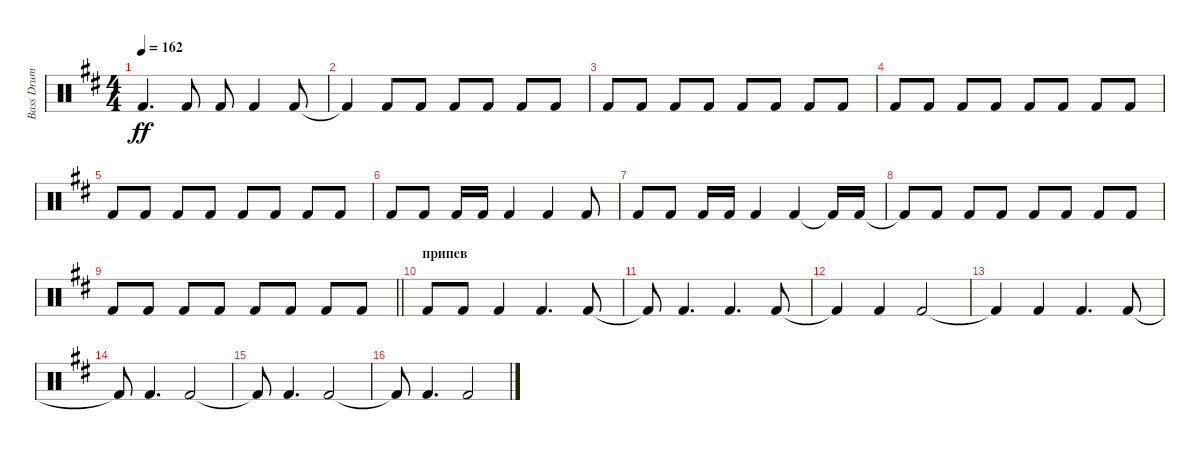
\track ("Bass Drum" "Bass Drum") {instrument percussion}
\staff {score}
\articulation defaults
\ts (4 4)
\tempo 162
\clef neutral
\ks bminor "Kick (hit) 2"{t}.4{d dy ff} "Kick (hit) 2".8 "Kick (hit) 2".8 "Kick (hit) 2".4 "Kick (hit) 2".8
|
"Kick (hit) 2"{t}.4 "Kick (hit) 2".8 "Kick (hit) 2".8 "Kick (hit) 2".8 "Kick (hit) 2".8 "Kick (hit) 2".8 "Kick (hit) 2".8 |
"Kick (hit) 2".8 "Kick (hit) 2".8 "Kick (hit) 2".8 "Kick (hit) 2".8 "Kick (hit) 2".8 "Kick (hit) 2".8 "Kick (hit) 2".8 "Kick (hit) 2".8 |
"Kick (hit) 2".8 "Kick (hit) 2".8 "Kick (hit) 2".8 "Kick (hit) 2".8 "Kick (hit) 2".8 "Kick (hit) 2".8 "Kick (hit) 2".8 "Kick (hit) 2".8 |
"Kick (hit) 2".8 "Kick (hit) 2".8 "Kick (hit) 2".8 "Kick (hit) 2".8 "Kick (hit) 2".8 "Kick (hit) 2".8 "Kick (hit) 2".8 "Kick (hit) 2".8 |
"Kick (hit) 2".8 "Kick (hit) 2".8 "Kick (hit) 2".16 "Kick (hit) 2".16 "Kick (hit) 2".4 "Kick (hit) 2".4 "Kick (hit) 2".8 |
"Kick (hit) 2".8 "Kick (hit) 2".8 "Kick (hit) 2".16 "Kick (hit) 2".16 "Kick (hit) 2".4 "Kick (hit) 2".4 "Kick (hit) 2"{t}.16 "Kick (hit) 2".16 |
"Kick (hit) 2"{t}.8 "Kick (hit) 2".8 "Kick (hit) 2".8 "Kick (hit) 2".8 "Kick (hit) 2".8 "Kick (hit) 2".8 "Kick (hit) 2".8 "Kick (hit) 2".8 |
\barLineRight lightlight "Kick (hit) 2".8 "Kick (hit) 2".8 "Kick (hit) 2".8 "Kick (hit) 2".8 "Kick (hit) 2".8 "Kick (hit) 2".8 "Kick (hit) 2".8 "Kick (hit) 2".8
|
\section ("" "припев")
"Kick (hit) 2".8 "Kick (hit) 2".8 "Kick (hit) 2".4 "Kick (hit) 2".4{d} "Kick (hit) 2".8 |
"Kick (hit) 2"{t}.8 "Kick (hit) 2".4{d} "Kick (hit) 2".4{d} "Kick (hit) 2".8 |
"Kick (hit) 2"{t}.4 "Kick (hit) 2".4 "Kick (hit) 2".2 |
"Kick (hit) 2"{t}.4 "Kick (hit) 2".4 "Kick (hit) 2".4{d} "Kick (hit) 2".8 |
"Kick (hit) 2"{t}.8 "Kick (hit) 2".4{d} "Kick (hit) 2".2 |
"Kick (hit) 2"{t}.8 "Kick (hit) 2".4{d} "Kick (hit) 2".2 |
"Kick (hit) 2"{t}.8 "Kick (hit) 2".4{d} "Kick (hit) 2".2
